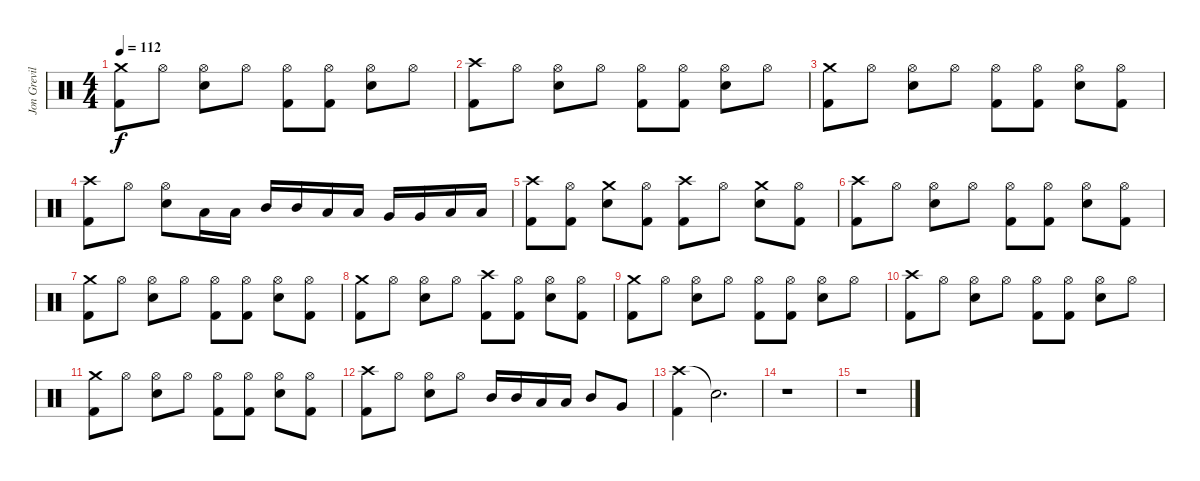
\track ("Jon Greville (Drums)" "Jon Grevil") {instrument percussion}
\staff {score}
\articulation defaults
\ts (4 4)
\tempo 112
\clef neutral
\ks c
("Crash medium (hit)" "Kick (hit) 2").8{dy f} "Hi-Hat (open)".8 ("Hi-Hat (open)" "Electric Snare (hit)").8 "Hi-Hat (open)".8 ("Hi-Hat (open)" "Kick (hit) 2").8 ("Hi-Hat (open)" "Kick (hit) 2").8 ("Hi-Hat (open)" "Electric Snare (hit)").8 "Hi-Hat (open)".8 |
("Crash high (hit)" "Kick (hit) 2").8 "Hi-Hat (open)".8 ("Hi-Hat (open)" "Electric Snare (hit)").8 "Hi-Hat (open)".8 ("Hi-Hat (open)" "Kick (hit) 2").8 ("Hi-Hat (open)" "Kick (hit) 2").8 ("Hi-Hat (open)" "Electric Snare (hit)").8 "Hi-Hat (open)".8 |
("Crash medium (hit)" "Kick (hit) 2").8 "Hi-Hat (open)".8 ("Hi-Hat (open)" "Electric Snare (hit)").8 "Hi-Hat (open)".8 ("Hi-Hat (open)" "Kick (hit) 2").8 ("Hi-Hat (open)" "Kick (hit) 2").8 ("Hi-Hat (open)" "Electric Snare (hit)").8 ("Hi-Hat (open)" "Kick (hit) 2").8 |
("Crash high (hit)" "Kick (hit) 2").8 "Hi-Hat (open)".8 ("Hi-Hat (open)" "Electric Snare (hit)").8 "Low Tom (hit)".16 "Low Tom (hit)".16 "Mid Tom (hit)".16 "Mid Tom (hit)".16 "Low Tom (hit)".16 "Low Tom (hit)".16 "Very Low Tom (hit)".16 "Very Low Tom (hit)".16 "Low Floor Tom (hit)".16 "Low Floor Tom (hit)".16 |
("Crash high (hit)" "Kick (hit) 2").8 ("Hi-Hat (open)" "Kick (hit) 2").8 ("Crash medium (hit)" "Electric Snare (hit)").8 ("Hi-Hat (open)" "Kick (hit) 2").8 ("Crash high (hit)" "Kick (hit) 2").8 "Hi-Hat (open)".8 ("Crash medium (hit)" "Electric Snare (hit)").8 ("Hi-Hat (open)" "Kick (hit) 2").8 |
("Crash high (hit)" "Kick (hit) 2").8 "Hi-Hat (open)".8 ("Hi-Hat (open)" "Electric Snare (hit)").8 "Hi-Hat (open)".8 ("Hi-Hat (open)" "Kick (hit) 2").8 ("Hi-Hat (open)" "Kick (hit) 2").8 ("Hi-Hat (open)" "Electric Snare (hit)").8 ("Hi-Hat (open)" "Kick (hit) 2").8 |
("Crash medium (hit)" "Kick (hit) 2").8 "Hi-Hat (open)".8 ("Hi-Hat (open)" "Electric Snare (hit)").8 "Hi-Hat (open)".8 ("Hi-Hat (open)" "Kick (hit) 2").8 ("Hi-Hat (open)" "Kick (hit) 2").8 ("Hi-Hat (open)" "Electric Snare (hit)").8 ("Hi-Hat (open)" "Kick (hit) 2").8 |
("Crash medium (hit)" "Kick (hit) 2").8 "Hi-Hat (open)".8 ("Hi-Hat (open)" "Electric Snare (hit)").8 "Hi-Hat (open)".8 ("Crash high (hit)" "Kick (hit) 2").8 ("Hi-Hat (open)" "Kick (hit) 2").8 ("Hi-Hat (open)" "Electric Snare (hit)").8 ("Hi-Hat (open)" "Kick (hit) 2").8 |
("Crash medium (hit)" "Kick (hit) 2").8 "Hi-Hat (open)".8 ("Hi-Hat (open)" "Electric Snare (hit)").8 "Hi-Hat (open)".8 ("Hi-Hat (open)" "Kick (hit) 2").8 ("Hi-Hat (open)" "Kick (hit) 2").8 ("Hi-Hat (open)" "Electric Snare (hit)").8 "Hi-Hat (open)".8 |
("Crash high (hit)" "Kick (hit) 2").8 "Hi-Hat (open)".8 ("Hi-Hat (open)" "Electric Snare (hit)").8 "Hi-Hat (open)".8 ("Hi-Hat (open)" "Kick (hit) 2").8 ("Hi-Hat (open)" "Kick (hit) 2").8 ("Hi-Hat (open)" "Electric Snare (hit)").8 "Hi-Hat (open)".8 |
("Crash medium (hit)" "Kick (hit) 2").8 "Hi-Hat (open)".8 ("Hi-Hat (open)" "Electric Snare (hit)").8 "Hi-Hat (open)".8 ("Hi-Hat (open)" "Kick (hit) 2").8 ("Hi-Hat (open)" "Kick (hit) 2").8 ("Hi-Hat (open)" "Electric Snare (hit)").8 ("Hi-Hat (open)" "Kick (hit) 2").8 |
("Crash high (hit)" "Kick (hit) 2").8 "Hi-Hat (open)".8 ("Hi-Hat (open)" "Electric Snare (hit)").8 "Hi-Hat (open)".8 "Mid Tom (hit)".16 "Mid Tom (hit)".16 "Low Tom (hit)".16 "Low Tom (hit)".16 "Mid Tom (hit)".8 "Very Low Tom (hit)".8 |
("Crash high (hit)" "Kick (hit) 2").4 "Snare (hit)"{t}.2{d} |
r.1 |
r.1
